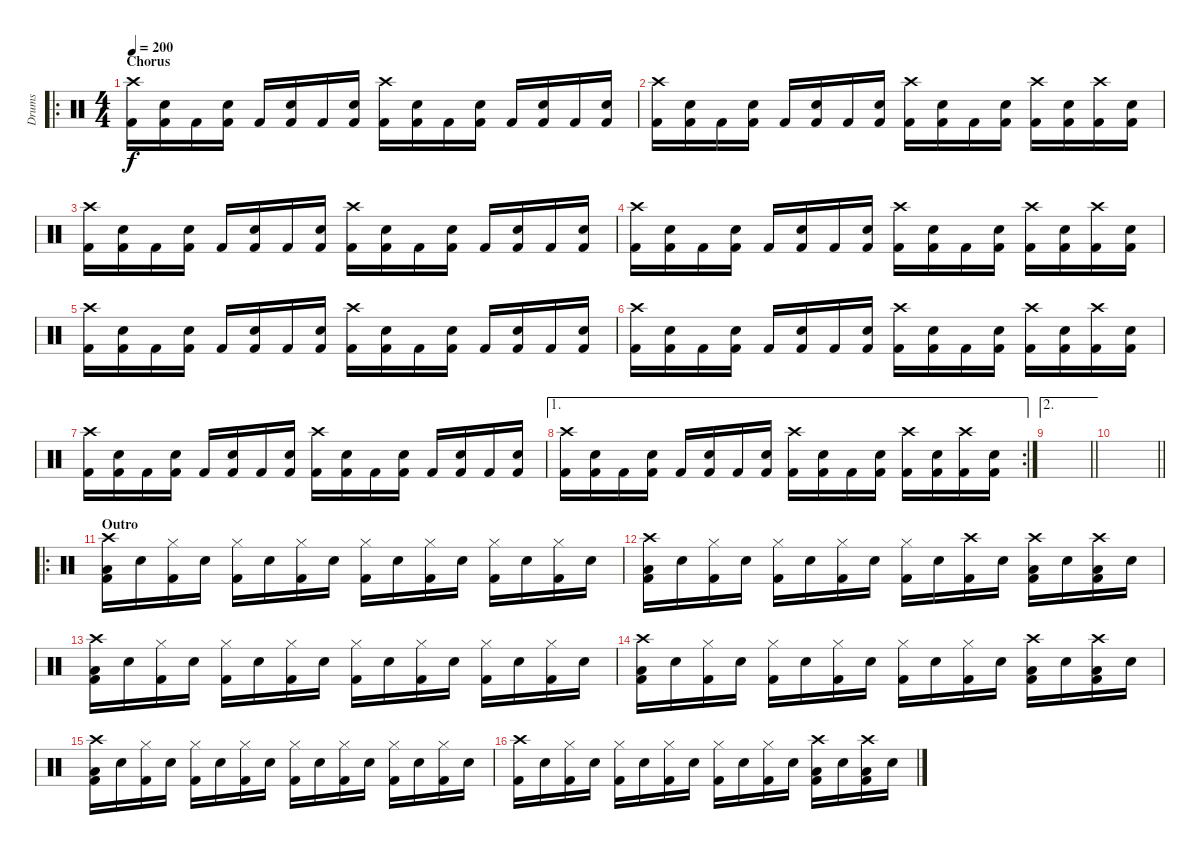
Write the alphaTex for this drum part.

\track ("Drums" "Drums") {instrument percussion}
\staff {score}
\articulation defaults
\ro
\ts (4 4)
\section ("" "Chorus")
\tempo 200
\clef neutral
\ks c
("Crash high (hit)" "Kick (hit) 2").16{dy f} ("Snare (hit) 2" "Kick (hit) 2").16 "Kick (hit) 2".16 ("Snare (hit) 2" "Kick (hit) 2").16 "Kick (hit) 2".16 ("Snare (hit) 2" "Kick (hit) 2").16 "Kick (hit) 2".16 ("Snare (hit) 2" "Kick (hit) 2").16 ("Crash high (hit)" "Kick (hit) 2").16 ("Snare (hit) 2" "Kick (hit) 2").16 "Kick (hit) 2".16 ("Snare (hit) 2" "Kick (hit) 2").16 "Kick (hit) 2".16 ("Snare (hit) 2" "Kick (hit) 2").16 "Kick (hit) 2".16 ("Snare (hit) 2" "Kick (hit) 2").16 |
("Crash high (hit)" "Kick (hit) 2").16 ("Snare (hit) 2" "Kick (hit) 2").16 "Kick (hit) 2".16 ("Snare (hit) 2" "Kick (hit) 2").16 "Kick (hit) 2".16 ("Snare (hit) 2" "Kick (hit) 2").16 "Kick (hit) 2".16 ("Snare (hit) 2" "Kick (hit) 2").16 ("Crash high (hit)" "Kick (hit) 2").16 ("Snare (hit) 2" "Kick (hit) 2").16 "Kick (hit) 2".16 ("Snare (hit) 2" "Kick (hit) 2").16 ("Crash high (hit)" "Kick (hit) 2").16 ("Snare (hit) 2" "Kick (hit) 2").16 ("Crash high (hit)" "Kick (hit) 2").16 ("Snare (hit) 2" "Kick (hit) 2").16 |
("Crash high (hit)" "Kick (hit) 2").16 ("Snare (hit) 2" "Kick (hit) 2").16 "Kick (hit) 2".16 ("Snare (hit) 2" "Kick (hit) 2").16 "Kick (hit) 2".16 ("Snare (hit) 2" "Kick (hit) 2").16 "Kick (hit) 2".16 ("Snare (hit) 2" "Kick (hit) 2").16 ("Crash high (hit)" "Kick (hit) 2").16 ("Snare (hit) 2" "Kick (hit) 2").16 "Kick (hit) 2".16 ("Snare (hit) 2" "Kick (hit) 2").16 "Kick (hit) 2".16 ("Snare (hit) 2" "Kick (hit) 2").16 "Kick (hit) 2".16 ("Snare (hit) 2" "Kick (hit) 2").16 |
("Crash high (hit)" "Kick (hit) 2").16 ("Snare (hit) 2" "Kick (hit) 2").16 "Kick (hit) 2".16 ("Snare (hit) 2" "Kick (hit) 2").16 "Kick (hit) 2".16 ("Snare (hit) 2" "Kick (hit) 2").16 "Kick (hit) 2".16 ("Snare (hit) 2" "Kick (hit) 2").16 ("Crash high (hit)" "Kick (hit) 2").16 ("Snare (hit) 2" "Kick (hit) 2").16 "Kick (hit) 2".16 ("Snare (hit) 2" "Kick (hit) 2").16 ("Crash high (hit)" "Kick (hit) 2").16 ("Snare (hit) 2" "Kick (hit) 2").16 ("Crash high (hit)" "Kick (hit) 2").16 ("Snare (hit) 2" "Kick (hit) 2").16 |
("Crash high (hit)" "Kick (hit) 2").16 ("Snare (hit) 2" "Kick (hit) 2").16 "Kick (hit) 2".16 ("Snare (hit) 2" "Kick (hit) 2").16 "Kick (hit) 2".16 ("Snare (hit) 2" "Kick (hit) 2").16 "Kick (hit) 2".16 ("Snare (hit) 2" "Kick (hit) 2").16 ("Crash high (hit)" "Kick (hit) 2").16 ("Snare (hit) 2" "Kick (hit) 2").16 "Kick (hit) 2".16 ("Snare (hit) 2" "Kick (hit) 2").16 "Kick (hit) 2".16 ("Snare (hit) 2" "Kick (hit) 2").16 "Kick (hit) 2".16 ("Snare (hit) 2" "Kick (hit) 2").16 |
("Crash high (hit)" "Kick (hit) 2").16 ("Snare (hit) 2" "Kick (hit) 2").16 "Kick (hit) 2".16 ("Snare (hit) 2" "Kick (hit) 2").16 "Kick (hit) 2".16 ("Snare (hit) 2" "Kick (hit) 2").16 "Kick (hit) 2".16 ("Snare (hit) 2" "Kick (hit) 2").16 ("Crash high (hit)" "Kick (hit) 2").16 ("Snare (hit) 2" "Kick (hit) 2").16 "Kick (hit) 2".16 ("Snare (hit) 2" "Kick (hit) 2").16 ("Crash high (hit)" "Kick (hit) 2").16 ("Snare (hit) 2" "Kick (hit) 2").16 ("Crash high (hit)" "Kick (hit) 2").16 ("Snare (hit) 2" "Kick (hit) 2").16 |
("Crash high (hit)" "Kick (hit) 2").16 ("Snare (hit) 2" "Kick (hit) 2").16 "Kick (hit) 2".16 ("Snare (hit) 2" "Kick (hit) 2").16 "Kick (hit) 2".16 ("Snare (hit) 2" "Kick (hit) 2").16 "Kick (hit) 2".16 ("Snare (hit) 2" "Kick (hit) 2").16 ("Crash high (hit)" "Kick (hit) 2").16 ("Snare (hit) 2" "Kick (hit) 2").16 "Kick (hit) 2".16 ("Snare (hit) 2" "Kick (hit) 2").16 "Kick (hit) 2".16 ("Snare (hit) 2" "Kick (hit) 2").16 "Kick (hit) 2".16 ("Snare (hit) 2" "Kick (hit) 2").16 |
\ae 1
\rc 2
("Crash high (hit)" "Kick (hit) 2").16 ("Snare (hit) 2" "Kick (hit) 2").16 "Kick (hit) 2".16 ("Snare (hit) 2" "Kick (hit) 2").16 "Kick (hit) 2".16 ("Snare (hit) 2" "Kick (hit) 2").16 "Kick (hit) 2".16 ("Snare (hit) 2" "Kick (hit) 2").16 ("Crash high (hit)" "Kick (hit) 2").16 ("Snare (hit) 2" "Kick (hit) 2").16 "Kick (hit) 2".16 ("Snare (hit) 2" "Kick (hit) 2").16 ("Crash high (hit)" "Kick (hit) 2").16 ("Snare (hit) 2" "Kick (hit) 2").16 ("Crash high (hit)" "Kick (hit) 2").16 ("Snare (hit) 2" "Kick (hit) 2").16 |
\ae 2
\barLineRight lightlight
|
\barLineRight lightlight
|
\ro
\section ("" "Outro")
("Crash high (hit)" "Low Floor Tom (hit)" "Kick (hit) 2").16 "Snare (hit) 2".16 ("Hi-Hat (closed)" "Kick (hit) 2").16 "Snare (hit) 2".16 ("Hi-Hat (closed)" "Kick (hit) 2").16 "Snare (hit) 2".16 ("Hi-Hat (closed)" "Kick (hit) 2").16 "Snare (hit) 2".16 ("Hi-Hat (closed)" "Kick (hit) 2").16 "Snare (hit) 2".16 ("Hi-Hat (closed)" "Kick (hit) 2").16 "Snare (hit) 2".16 ("Hi-Hat (closed)" "Kick (hit) 2").16 "Snare (hit) 2".16 ("Hi-Hat (closed)" "Kick (hit) 2").16 "Snare (hit) 2".16 |
("Crash high (hit)" "Low Floor Tom (hit)" "Kick (hit) 2").16 "Snare (hit) 2".16 ("Hi-Hat (closed)" "Kick (hit) 2").16 "Snare (hit) 2".16 ("Hi-Hat (closed)" "Kick (hit) 2").16 "Snare (hit) 2".16 ("Hi-Hat (closed)" "Kick (hit) 2").16 "Snare (hit) 2".16 ("Hi-Hat (closed)" "Kick (hit) 2").16 "Snare (hit) 2".16 ("Crash high (hit)" "Kick (hit) 2").16 "Snare (hit) 2".16 ("Crash high (hit)" "Low Floor Tom (hit)" "Kick (hit) 2").16 "Snare (hit) 2".16 ("Crash high (hit)" "Low Floor Tom (hit)" "Kick (hit) 2").16 "Snare (hit) 2".16 |
("Crash high (hit)" "Low Floor Tom (hit)" "Kick (hit) 2").16 "Snare (hit) 2".16 ("Hi-Hat (closed)" "Kick (hit) 2").16 "Snare (hit) 2".16 ("Hi-Hat (closed)" "Kick (hit) 2").16 "Snare (hit) 2".16 ("Hi-Hat (closed)" "Kick (hit) 2").16 "Snare (hit) 2".16 ("Hi-Hat (closed)" "Kick (hit) 2").16 "Snare (hit) 2".16 ("Hi-Hat (closed)" "Kick (hit) 2").16 "Snare (hit) 2".16 ("Hi-Hat (closed)" "Kick (hit) 2").16 "Snare (hit) 2".16 ("Hi-Hat (closed)" "Kick (hit) 2").16 "Snare (hit) 2".16 |
("Crash high (hit)" "Low Floor Tom (hit)" "Kick (hit) 2").16 "Snare (hit) 2".16 ("Hi-Hat (closed)" "Kick (hit) 2").16 "Snare (hit) 2".16 ("Hi-Hat (closed)" "Kick (hit) 2").16 "Snare (hit) 2".16 ("Hi-Hat (closed)" "Kick (hit) 2").16 "Snare (hit) 2".16 ("Hi-Hat (closed)" "Kick (hit) 2").16 "Snare (hit) 2".16 ("Hi-Hat (closed)" "Kick (hit) 2").16 "Snare (hit) 2".16 ("Crash high (hit)" "Low Floor Tom (hit)" "Kick (hit) 2").16 "Snare (hit) 2".16 ("Crash high (hit)" "Low Floor Tom (hit)" "Kick (hit) 2").16 "Snare (hit) 2".16 |
("Crash high (hit)" "Low Floor Tom (hit)" "Kick (hit) 2").16 "Snare (hit) 2".16 ("Hi-Hat (closed)" "Kick (hit) 2").16 "Snare (hit) 2".16 ("Hi-Hat (closed)" "Kick (hit) 2").16 "Snare (hit) 2".16 ("Hi-Hat (closed)" "Kick (hit) 2").16 "Snare (hit) 2".16 ("Hi-Hat (closed)" "Kick (hit) 2").16 "Snare (hit) 2".16 ("Hi-Hat (closed)" "Kick (hit) 2").16 "Snare (hit) 2".16 ("Hi-Hat (closed)" "Kick (hit) 2").16 "Snare (hit) 2".16 ("Hi-Hat (closed)" "Kick (hit) 2").16 "Snare (hit) 2".16 |
("Crash high (hit)" "Kick (hit) 2").16 "Snare (hit) 2".16 ("Hi-Hat (closed)" "Kick (hit) 2").16 "Snare (hit) 2".16 ("Hi-Hat (closed)" "Kick (hit) 2").16 "Snare (hit) 2".16 ("Hi-Hat (closed)" "Kick (hit) 2").16 "Snare (hit) 2".16 ("Hi-Hat (closed)" "Kick (hit) 2").16 "Snare (hit) 2".16 ("Hi-Hat (closed)" "Kick (hit) 2").16 "Snare (hit) 2".16 ("Crash high (hit)" "Low Floor Tom (hit)" "Kick (hit) 2").16 "Snare (hit) 2".16 ("Crash high (hit)" "Low Floor Tom (hit)" "Kick (hit) 2").16 "Snare (hit) 2".16
